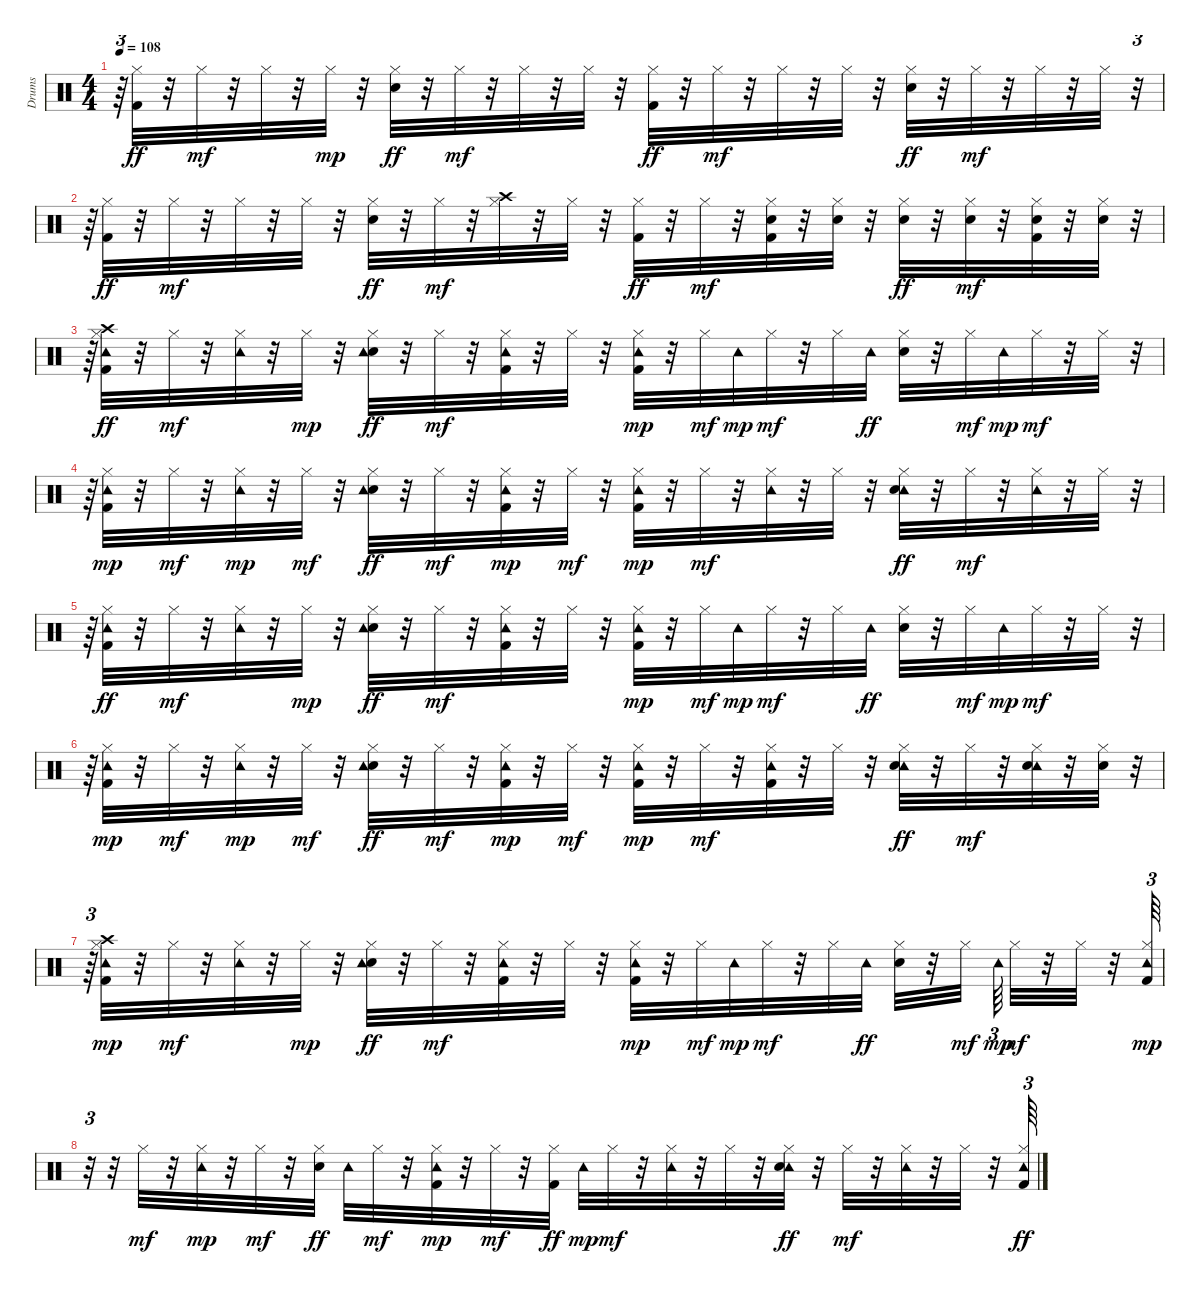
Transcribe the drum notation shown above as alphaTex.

\track ("Drums               " "Drums     ") {instrument percussion}
\staff {score}
\articulation defaults
\ts (4 4)
\tempo 108
\clef neutral
\ks c
r.64{tu (3 2) dy mf} ("Kick (hit) 2" "Hi-Hat (closed)").32{dy ff} r.32 "Hi-Hat (closed)".32{dy mf} r.32 "Hi-Hat (closed)".32 r.32 "Hi-Hat (closed)".32{dy mp} r.32 ("Snare (hit) 2" "Hi-Hat (closed)").32{dy ff} r.32 "Hi-Hat (closed)".32{dy mf} r.32 "Hi-Hat (closed)".32 r.32 "Hi-Hat (closed)".32 r.32 ("Kick (hit) 2" "Hi-Hat (closed)").32{dy ff} r.32 "Hi-Hat (closed)".32{dy mf} r.32 "Hi-Hat (closed)".32 r.32 "Hi-Hat (closed)".32 r.32 ("Snare (hit) 2" "Hi-Hat (closed)").32{dy ff} r.32 "Hi-Hat (closed)".32{dy mf} r.32 "Hi-Hat (closed)".32 r.32 "Hi-Hat (closed)".32 r.32{tu (3 2)} |
r.64{tu (3 2)} ("Kick (hit) 2" "Hi-Hat (closed)").32{dy ff} r.32 "Hi-Hat (closed)".32{dy mf} r.32 "Hi-Hat (closed)".32 r.32 "Hi-Hat (closed)".32 r.32 ("Snare (hit) 2" "Hi-Hat (closed)").32{dy ff} r.32 "Hi-Hat (closed)".32{dy mf} r.32 ("Hi-Hat (closed)" "Crash high (hit)").32 r.32 "Hi-Hat (closed)".32 r.32 ("Kick (hit) 2" "Hi-Hat (closed)").32{dy ff} r.32 "Hi-Hat (closed)".32{dy mf} r.32 ("Kick (hit) 2" "Snare (hit) 2" "Hi-Hat (closed)").32 r.32 ("Snare (hit) 2" "Hi-Hat (closed)").32 r.32 ("Hi-Hat (closed)" "Snare (hit) 2").32{dy ff} r.32 ("Snare (hit) 2" "Hi-Hat (closed)").32{dy mf} r.32 ("Kick (hit) 2" "Snare (hit) 2" "Hi-Hat (closed)").32 r.32 ("Snare (hit) 2" "Hi-Hat (closed)").32 r.32{tu (3 2)} |
r.64{tu (3 2)} ("Kick (hit) 2" "Crash high (hit)" "Tambourine (hit)" "Hi-Hat (closed)").32{dy ff} r.32 "Hi-Hat (closed)".32{dy mf} r.32 ("Tambourine (hit)" "Hi-Hat (closed)").32 r.32 "Hi-Hat (closed)".32{dy mp} r.32 ("Snare (hit) 2" "Hi-Hat (closed)" "Tambourine (hit)").32{dy ff} r.32 "Hi-Hat (closed)".32{dy mf} r.32 ("Tambourine (hit)" "Kick (hit) 2" "Hi-Hat (closed)").32 r.32 "Hi-Hat (closed)".32 r.32 ("Kick (hit) 2" "Hi-Hat (closed)" "Tambourine (hit)").32{dy mp} r.32 "Hi-Hat (closed)".32{dy mf} "Tambourine (hit)".32{dy mp} "Hi-Hat (closed)".32{dy mf} r.32 "Hi-Hat (closed)".32 "Tambourine (hit)".32{dy ff} ("Snare (hit) 2" "Hi-Hat (closed)").32 r.32 "Hi-Hat (closed)".32{dy mf} "Tambourine (hit)".32{dy mp} "Hi-Hat (closed)".32{dy mf} r.32 "Hi-Hat (closed)".32 r.32{tu (3 2)} |
r.64{tu (3 2)} ("Kick (hit) 2" "Hi-Hat (closed)" "Tambourine (hit)").32{dy mp} r.32 "Hi-Hat (closed)".32{dy mf} r.32 ("Hi-Hat (closed)" "Tambourine (hit)").32{dy mp} r.32 "Hi-Hat (closed)".32{dy mf} r.32 ("Hi-Hat (closed)" "Snare (hit) 2" "Tambourine (hit)").32{dy ff} r.32 "Hi-Hat (closed)".32{dy mf} r.32 ("Kick (hit) 2" "Hi-Hat (closed)" "Tambourine (hit)").32{dy mp} r.32 "Hi-Hat (closed)".32{dy mf} r.32 ("Kick (hit) 2" "Hi-Hat (closed)" "Tambourine (hit)").32{dy mp} r.32 "Hi-Hat (closed)".32{dy mf} r.32 ("Tambourine (hit)" "Hi-Hat (closed)").32 r.32 "Hi-Hat (closed)".32 r.32 ("Tambourine (hit)" "Snare (hit) 2" "Hi-Hat (closed)").32{dy ff} r.32 "Hi-Hat (closed)".32{dy mf} r.32 ("Tambourine (hit)" "Hi-Hat (closed)").32 r.32 "Hi-Hat (closed)".32 r.32{tu (3 2)} |
r.64{tu (3 2)} ("Kick (hit) 2" "Tambourine (hit)" "Hi-Hat (closed)").32{dy ff} r.32 "Hi-Hat (closed)".32{dy mf} r.32 ("Tambourine (hit)" "Hi-Hat (closed)").32 r.32 "Hi-Hat (closed)".32{dy mp} r.32 ("Snare (hit) 2" "Hi-Hat (closed)" "Tambourine (hit)").32{dy ff} r.32 "Hi-Hat (closed)".32{dy mf} r.32 ("Tambourine (hit)" "Kick (hit) 2" "Hi-Hat (closed)").32 r.32 "Hi-Hat (closed)".32 r.32 ("Kick (hit) 2" "Hi-Hat (closed)" "Tambourine (hit)").32{dy mp} r.32 "Hi-Hat (closed)".32{dy mf} "Tambourine (hit)".32{dy mp} "Hi-Hat (closed)".32{dy mf} r.32 "Hi-Hat (closed)".32 "Tambourine (hit)".32{dy ff} ("Snare (hit) 2" "Hi-Hat (closed)").32 r.32 "Hi-Hat (closed)".32{dy mf} "Tambourine (hit)".32{dy mp} "Hi-Hat (closed)".32{dy mf} r.32 "Hi-Hat (closed)".32 r.32{tu (3 2)} |
r.64{tu (3 2)} ("Kick (hit) 2" "Hi-Hat (closed)" "Tambourine (hit)").32{dy mp} r.32 "Hi-Hat (closed)".32{dy mf} r.32 ("Hi-Hat (closed)" "Tambourine (hit)").32{dy mp} r.32 "Hi-Hat (closed)".32{dy mf} r.32 ("Snare (hit) 2" "Hi-Hat (closed)" "Tambourine (hit)").32{dy ff} r.32 "Hi-Hat (closed)".32{dy mf} r.32 ("Kick (hit) 2" "Hi-Hat (closed)" "Tambourine (hit)").32{dy mp} r.32 "Hi-Hat (closed)".32{dy mf} r.32 ("Kick (hit) 2" "Hi-Hat (closed)" "Tambourine (hit)").32{dy mp} r.32 "Hi-Hat (closed)".32{dy mf} r.32 ("Tambourine (hit)" "Kick (hit) 2" "Hi-Hat (closed)").32 r.32 "Hi-Hat (closed)".32 r.32 ("Tambourine (hit)" "Snare (hit) 2" "Hi-Hat (closed)").32{dy ff} r.32 "Hi-Hat (closed)".32{dy mf} r.32 ("Tambourine (hit)" "Snare (hit) 2" "Hi-Hat (closed)").32 r.32 ("Snare (hit) 2" "Hi-Hat (closed)").32 r.32{tu (3 2)} |
r.64{tu (3 2)} ("Hi-Hat (closed)" "Kick (hit) 2" "Crash high (hit)" "Tambourine (hit)").32{dy mp} r.32 "Hi-Hat (closed)".32{dy mf} r.32 ("Tambourine (hit)" "Hi-Hat (closed)").32 r.32 "Hi-Hat (closed)".32{dy mp} r.32 ("Snare (hit) 2" "Hi-Hat (closed)" "Tambourine (hit)").32{dy ff} r.32 "Hi-Hat (closed)".32{dy mf} r.32 ("Tambourine (hit)" "Kick (hit) 2" "Hi-Hat (closed)").32 r.32 "Hi-Hat (closed)".32 r.32 ("Kick (hit) 2" "Hi-Hat (closed)" "Tambourine (hit)").32{dy mp} r.32 "Hi-Hat (closed)".32{dy mf} "Tambourine (hit)".32{dy mp} "Hi-Hat (closed)".32{dy mf} r.32 "Hi-Hat (closed)".32 "Tambourine (hit)".32{dy ff} ("Snare (hit) 2" "Hi-Hat (closed)").32 r.32 "Hi-Hat (closed)".32{dy mf beam splitsecondary} "Tambourine (hit)".64{tu (3 2) dy mp} "Hi-Hat (closed)".32{dy mf} r.32 "Hi-Hat (closed)".32 r.32 ("Kick (hit) 2" "Hi-Hat (closed)" "Tambourine (hit)").64{tu (3 2) dy mp} |
r.32{tu (3 2)} r.32 "Hi-Hat (closed)".32{dy mf} r.32 ("Hi-Hat (closed)" "Tambourine (hit)").32{dy mp} r.32 "Hi-Hat (closed)".32{dy mf} r.32 ("Snare (hit) 2" "Hi-Hat (closed)").32{dy ff} "Tambourine (hit)".32 "Hi-Hat (closed)".32{dy mf} r.32 ("Hi-Hat (closed)" "Kick (hit) 2" "Tambourine (hit)").32{dy mp} r.32 "Hi-Hat (closed)".32{dy mf} r.32 ("Kick (hit) 2" "Hi-Hat (closed)").32{dy ff} "Tambourine (hit)".32{dy mp} "Hi-Hat (closed)".32{dy mf} r.32 ("Tambourine (hit)" "Hi-Hat (closed)").32 r.32 "Hi-Hat (closed)".32 r.32 ("Tambourine (hit)" "Snare (hit) 2" "Hi-Hat (closed)").32{dy ff} r.32 "Hi-Hat (closed)".32{dy mf} r.32 ("Tambourine (hit)" "Hi-Hat (closed)").32 r.32 "Hi-Hat (closed)".32 r.32 ("Kick (hit) 2" "Tambourine (hit)" "Hi-Hat (closed)").64{tu (3 2) dy ff}
